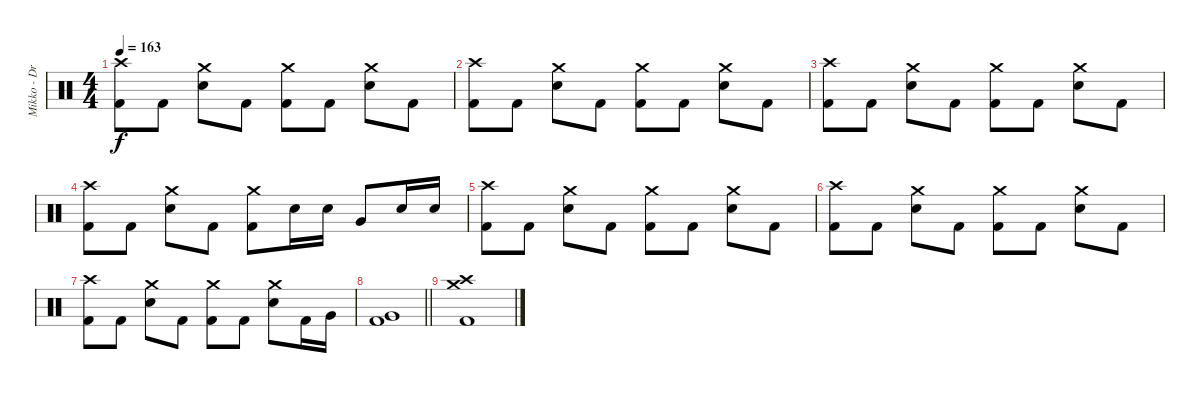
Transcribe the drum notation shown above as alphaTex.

\track ("Mikko - Drums" "Mikko - Dr") {instrument percussion}
\staff {score}
\articulation defaults
\ts (4 4)
\tempo 163
\clef neutral
\ks c
("Crash high (hit)" "Kick (hit) 2").8{dy f} "Kick (hit) 2".8 ("Crash medium (hit)" "Snare (hit) 2").8 "Kick (hit) 2".8 ("Crash medium (hit)" "Kick (hit) 2").8 "Kick (hit) 2".8 ("Crash medium (hit)" "Snare (hit) 2").8 "Kick (hit) 2".8 |
("Crash high (hit)" "Kick (hit) 2").8 "Kick (hit) 2".8 ("Crash medium (hit)" "Snare (hit) 2").8 "Kick (hit) 2".8 ("Crash medium (hit)" "Kick (hit) 2").8 "Kick (hit) 2".8 ("Crash medium (hit)" "Snare (hit) 2").8 "Kick (hit) 2".8 |
("Crash high (hit)" "Kick (hit) 2").8 "Kick (hit) 2".8 ("Crash medium (hit)" "Snare (hit) 2").8 "Kick (hit) 2".8 ("Crash medium (hit)" "Kick (hit) 2").8 "Kick (hit) 2".8 ("Crash medium (hit)" "Snare (hit) 2").8 "Kick (hit) 2".8 |
("Crash high (hit)" "Kick (hit) 2").8 "Kick (hit) 2".8 ("Crash medium (hit)" "Snare (hit) 2").8 "Kick (hit) 2".8 ("Crash medium (hit)" "Kick (hit) 2").8 "Snare (hit) 2".16 "Snare (hit) 2".16 "Very Low Tom (hit)".8 "Snare (hit) 2".16 "Snare (hit) 2".16 |
("Crash high (hit)" "Kick (hit) 2").8 "Kick (hit) 2".8 ("Crash medium (hit)" "Snare (hit) 2").8 "Kick (hit) 2".8 ("Crash medium (hit)" "Kick (hit) 2").8 "Kick (hit) 2".8 ("Crash medium (hit)" "Snare (hit) 2").8 "Kick (hit) 2".8 |
("Crash high (hit)" "Kick (hit) 2").8 "Kick (hit) 2".8 ("Crash medium (hit)" "Snare (hit) 2").8 "Kick (hit) 2".8 ("Crash medium (hit)" "Kick (hit) 2").8 "Kick (hit) 2".8 ("Crash medium (hit)" "Snare (hit) 2").8 "Kick (hit) 2".8 |
("Crash high (hit)" "Kick (hit) 2").8 "Kick (hit) 2".8 ("Crash medium (hit)" "Snare (hit) 2").8 "Kick (hit) 2".8 ("Crash medium (hit)" "Kick (hit) 2").8 "Kick (hit) 2".8 ("Crash medium (hit)" "Snare (hit) 2").8 "Kick (hit) 2".16 "Very Low Tom (hit)".16 |
\barLineRight lightlight
("Very Low Tom (hit)" "Kick (hit) 2").1 |
("Crash medium (hit)" "Crash high (hit)" "Kick (hit) 2").1
